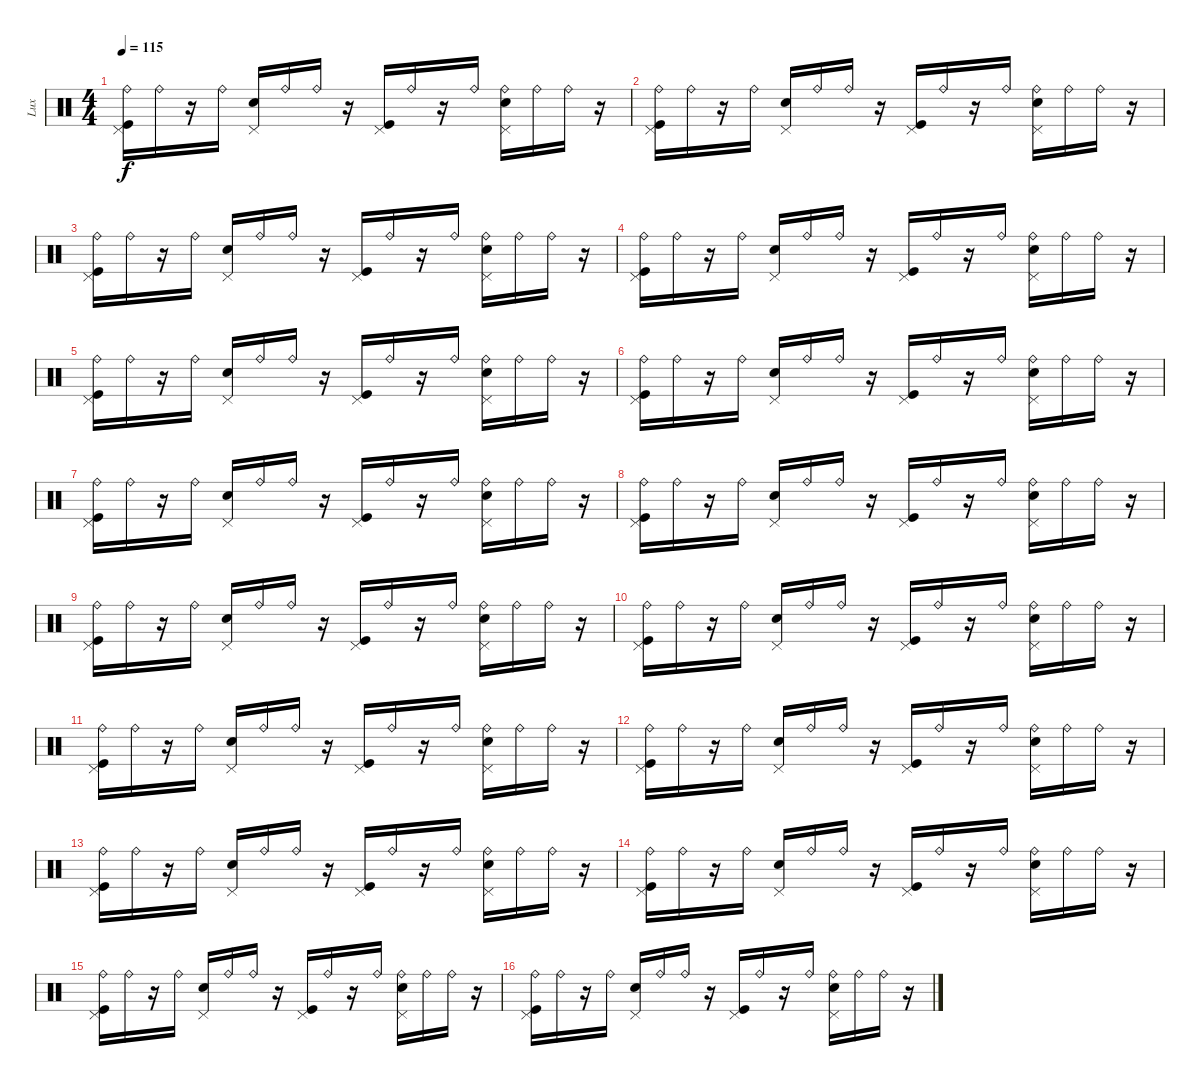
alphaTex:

\track ("Lux" "Lux") {instrument percussion}
\staff {score}
\articulation defaults
\ts (4 4)
\tempo 115
\clef neutral
\ks c
("Ride (bell)" "Pedal Hi-Hat (hit)" "Kick (hit)").16{dy f} "Ride (bell)".16 r.16 "Ride (bell)".16 ("Pedal Hi-Hat (hit)" "Snare (hit) 2").16 "Ride (bell)".16 "Ride (bell)".16 r.16 ("Pedal Hi-Hat (hit)" "Kick (hit)").16 "Ride (bell)".16 r.16 "Ride (bell)".16 ("Ride (bell)" "Pedal Hi-Hat (hit)" "Snare (hit) 2").16 "Ride (bell)".16 "Ride (bell)".16 r.16 |
("Ride (bell)" "Pedal Hi-Hat (hit)" "Kick (hit)").16 "Ride (bell)".16 r.16 "Ride (bell)".16 ("Pedal Hi-Hat (hit)" "Snare (hit) 2").16 "Ride (bell)".16 "Ride (bell)".16 r.16 ("Pedal Hi-Hat (hit)" "Kick (hit)").16 "Ride (bell)".16 r.16 "Ride (bell)".16 ("Ride (bell)" "Pedal Hi-Hat (hit)" "Snare (hit) 2").16 "Ride (bell)".16 "Ride (bell)".16 r.16 |
("Ride (bell)" "Pedal Hi-Hat (hit)" "Kick (hit)").16 "Ride (bell)".16 r.16 "Ride (bell)".16 ("Pedal Hi-Hat (hit)" "Snare (hit) 2").16 "Ride (bell)".16 "Ride (bell)".16 r.16 ("Pedal Hi-Hat (hit)" "Kick (hit)").16 "Ride (bell)".16 r.16 "Ride (bell)".16 ("Ride (bell)" "Pedal Hi-Hat (hit)" "Snare (hit) 2").16 "Ride (bell)".16 "Ride (bell)".16 r.16 |
("Ride (bell)" "Pedal Hi-Hat (hit)" "Kick (hit)").16 "Ride (bell)".16 r.16 "Ride (bell)".16 ("Pedal Hi-Hat (hit)" "Snare (hit) 2").16 "Ride (bell)".16 "Ride (bell)".16 r.16 ("Pedal Hi-Hat (hit)" "Kick (hit)").16 "Ride (bell)".16 r.16 "Ride (bell)".16 ("Ride (bell)" "Pedal Hi-Hat (hit)" "Snare (hit) 2").16 "Ride (bell)".16 "Ride (bell)".16 r.16 |
("Ride (bell)" "Pedal Hi-Hat (hit)" "Kick (hit)").16 "Ride (bell)".16 r.16 "Ride (bell)".16 ("Pedal Hi-Hat (hit)" "Snare (hit) 2").16 "Ride (bell)".16 "Ride (bell)".16 r.16 ("Pedal Hi-Hat (hit)" "Kick (hit)").16 "Ride (bell)".16 r.16 "Ride (bell)".16 ("Ride (bell)" "Pedal Hi-Hat (hit)" "Snare (hit) 2").16 "Ride (bell)".16 "Ride (bell)".16 r.16 |
("Ride (bell)" "Pedal Hi-Hat (hit)" "Kick (hit)").16 "Ride (bell)".16 r.16 "Ride (bell)".16 ("Pedal Hi-Hat (hit)" "Snare (hit) 2").16 "Ride (bell)".16 "Ride (bell)".16 r.16 ("Pedal Hi-Hat (hit)" "Kick (hit)").16 "Ride (bell)".16 r.16 "Ride (bell)".16 ("Ride (bell)" "Pedal Hi-Hat (hit)" "Snare (hit) 2").16 "Ride (bell)".16 "Ride (bell)".16 r.16 |
("Ride (bell)" "Pedal Hi-Hat (hit)" "Kick (hit)").16 "Ride (bell)".16 r.16 "Ride (bell)".16 ("Pedal Hi-Hat (hit)" "Snare (hit) 2").16 "Ride (bell)".16 "Ride (bell)".16 r.16 ("Pedal Hi-Hat (hit)" "Kick (hit)").16 "Ride (bell)".16 r.16 "Ride (bell)".16 ("Ride (bell)" "Pedal Hi-Hat (hit)" "Snare (hit) 2").16 "Ride (bell)".16 "Ride (bell)".16 r.16 |
("Ride (bell)" "Pedal Hi-Hat (hit)" "Kick (hit)").16 "Ride (bell)".16 r.16 "Ride (bell)".16 ("Pedal Hi-Hat (hit)" "Snare (hit) 2").16 "Ride (bell)".16 "Ride (bell)".16 r.16 ("Pedal Hi-Hat (hit)" "Kick (hit)").16 "Ride (bell)".16 r.16 "Ride (bell)".16 ("Ride (bell)" "Pedal Hi-Hat (hit)" "Snare (hit) 2").16 "Ride (bell)".16 "Ride (bell)".16 r.16 |
("Ride (bell)" "Pedal Hi-Hat (hit)" "Kick (hit)").16 "Ride (bell)".16 r.16 "Ride (bell)".16 ("Pedal Hi-Hat (hit)" "Snare (hit) 2").16 "Ride (bell)".16 "Ride (bell)".16 r.16 ("Pedal Hi-Hat (hit)" "Kick (hit)").16 "Ride (bell)".16 r.16 "Ride (bell)".16 ("Ride (bell)" "Pedal Hi-Hat (hit)" "Snare (hit) 2").16 "Ride (bell)".16 "Ride (bell)".16 r.16 |
("Ride (bell)" "Pedal Hi-Hat (hit)" "Kick (hit)").16 "Ride (bell)".16 r.16 "Ride (bell)".16 ("Pedal Hi-Hat (hit)" "Snare (hit) 2").16 "Ride (bell)".16 "Ride (bell)".16 r.16 ("Pedal Hi-Hat (hit)" "Kick (hit)").16 "Ride (bell)".16 r.16 "Ride (bell)".16 ("Ride (bell)" "Pedal Hi-Hat (hit)" "Snare (hit) 2").16 "Ride (bell)".16 "Ride (bell)".16 r.16 |
("Ride (bell)" "Pedal Hi-Hat (hit)" "Kick (hit)").16 "Ride (bell)".16 r.16 "Ride (bell)".16 ("Pedal Hi-Hat (hit)" "Snare (hit) 2").16 "Ride (bell)".16 "Ride (bell)".16 r.16 ("Pedal Hi-Hat (hit)" "Kick (hit)").16 "Ride (bell)".16 r.16 "Ride (bell)".16 ("Ride (bell)" "Pedal Hi-Hat (hit)" "Snare (hit) 2").16 "Ride (bell)".16 "Ride (bell)".16 r.16 |
("Ride (bell)" "Pedal Hi-Hat (hit)" "Kick (hit)").16 "Ride (bell)".16 r.16 "Ride (bell)".16 ("Pedal Hi-Hat (hit)" "Snare (hit) 2").16 "Ride (bell)".16 "Ride (bell)".16 r.16 ("Pedal Hi-Hat (hit)" "Kick (hit)").16 "Ride (bell)".16 r.16 "Ride (bell)".16 ("Ride (bell)" "Pedal Hi-Hat (hit)" "Snare (hit) 2").16 "Ride (bell)".16 "Ride (bell)".16 r.16 |
("Ride (bell)" "Pedal Hi-Hat (hit)" "Kick (hit)").16 "Ride (bell)".16 r.16 "Ride (bell)".16 ("Pedal Hi-Hat (hit)" "Snare (hit) 2").16 "Ride (bell)".16 "Ride (bell)".16 r.16 ("Pedal Hi-Hat (hit)" "Kick (hit)").16 "Ride (bell)".16 r.16 "Ride (bell)".16 ("Ride (bell)" "Pedal Hi-Hat (hit)" "Snare (hit) 2").16 "Ride (bell)".16 "Ride (bell)".16 r.16 |
("Ride (bell)" "Pedal Hi-Hat (hit)" "Kick (hit)").16 "Ride (bell)".16 r.16 "Ride (bell)".16 ("Pedal Hi-Hat (hit)" "Snare (hit) 2").16 "Ride (bell)".16 "Ride (bell)".16 r.16 ("Pedal Hi-Hat (hit)" "Kick (hit)").16 "Ride (bell)".16 r.16 "Ride (bell)".16 ("Ride (bell)" "Pedal Hi-Hat (hit)" "Snare (hit) 2").16 "Ride (bell)".16 "Ride (bell)".16 r.16 |
("Ride (bell)" "Pedal Hi-Hat (hit)" "Kick (hit)").16 "Ride (bell)".16 r.16 "Ride (bell)".16 ("Pedal Hi-Hat (hit)" "Snare (hit) 2").16 "Ride (bell)".16 "Ride (bell)".16 r.16 ("Pedal Hi-Hat (hit)" "Kick (hit)").16 "Ride (bell)".16 r.16 "Ride (bell)".16 ("Ride (bell)" "Pedal Hi-Hat (hit)" "Snare (hit) 2").16 "Ride (bell)".16 "Ride (bell)".16 r.16 |
("Ride (bell)" "Pedal Hi-Hat (hit)" "Kick (hit)").16 "Ride (bell)".16 r.16 "Ride (bell)".16 ("Pedal Hi-Hat (hit)" "Snare (hit) 2").16 "Ride (bell)".16 "Ride (bell)".16 r.16 ("Pedal Hi-Hat (hit)" "Kick (hit)").16 "Ride (bell)".16 r.16 "Ride (bell)".16 ("Ride (bell)" "Pedal Hi-Hat (hit)" "Snare (hit) 2").16 "Ride (bell)".16 "Ride (bell)".16 r.16
